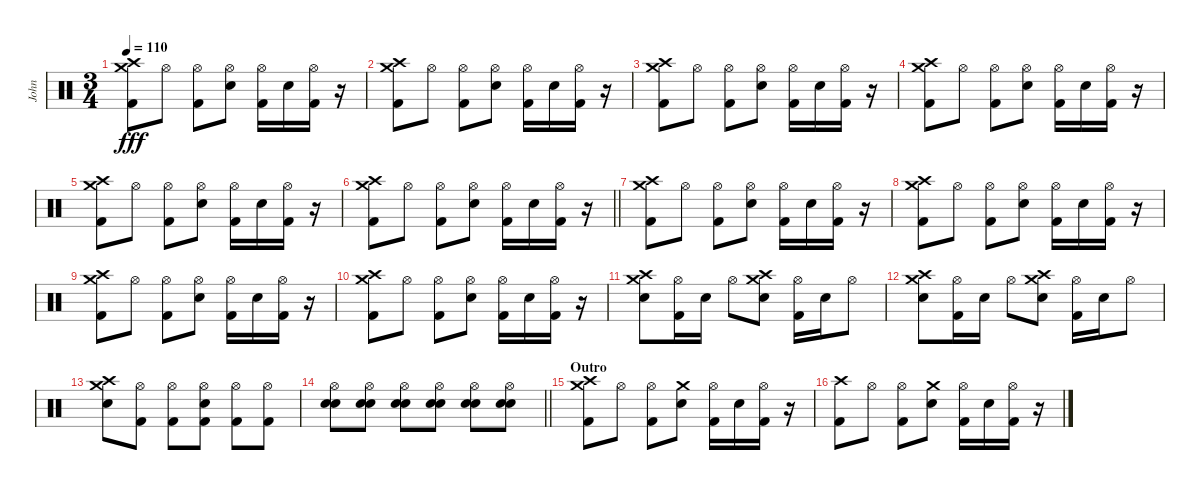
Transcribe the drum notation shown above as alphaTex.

\track ("John" "John") {instrument percussion}
\staff {score}
\articulation defaults
\ts (3 4)
\tempo 110
\clef neutral
\ks c
("Crash medium (hit)" "Crash high (hit)" "Kick (hit) 2").8{dy fff} "Hi-Hat (open)".8 ("Hi-Hat (open)" "Kick (hit) 2").8 ("Hi-Hat (open)" "Electric Snare (hit)").8 ("Hi-Hat (open)" "Kick (hit) 2").16 "Electric Snare (hit)".16 ("Hi-Hat (open)" "Kick (hit) 2").16 r.16 |
("Crash medium (hit)" "Crash high (hit)" "Kick (hit) 2").8 "Hi-Hat (open)".8 ("Hi-Hat (open)" "Kick (hit) 2").8 ("Hi-Hat (open)" "Electric Snare (hit)").8 ("Hi-Hat (open)" "Kick (hit) 2").16 "Electric Snare (hit)".16 ("Hi-Hat (open)" "Kick (hit) 2").16 r.16 |
("Crash medium (hit)" "Crash high (hit)" "Kick (hit) 2").8 "Hi-Hat (open)".8 ("Hi-Hat (open)" "Kick (hit) 2").8 ("Hi-Hat (open)" "Electric Snare (hit)").8 ("Hi-Hat (open)" "Kick (hit) 2").16 "Electric Snare (hit)".16 ("Hi-Hat (open)" "Kick (hit) 2").16 r.16 |
("Crash medium (hit)" "Crash high (hit)" "Kick (hit) 2").8 "Hi-Hat (open)".8 ("Hi-Hat (open)" "Kick (hit) 2").8 ("Hi-Hat (open)" "Electric Snare (hit)").8 ("Hi-Hat (open)" "Kick (hit) 2").16 "Electric Snare (hit)".16 ("Hi-Hat (open)" "Kick (hit) 2").16 r.16 |
("Crash medium (hit)" "Crash high (hit)" "Kick (hit) 2").8 "Hi-Hat (open)".8 ("Hi-Hat (open)" "Kick (hit) 2").8 ("Hi-Hat (open)" "Electric Snare (hit)").8 ("Hi-Hat (open)" "Kick (hit) 2").16 "Electric Snare (hit)".16 ("Hi-Hat (open)" "Kick (hit) 2").16 r.16 |
\barLineRight lightlight
("Crash medium (hit)" "Crash high (hit)" "Kick (hit) 2").8 "Hi-Hat (open)".8 ("Hi-Hat (open)" "Kick (hit) 2").8 ("Hi-Hat (open)" "Electric Snare (hit)").8 ("Hi-Hat (open)" "Kick (hit) 2").16 "Electric Snare (hit)".16 ("Hi-Hat (open)" "Kick (hit) 2").16 r.16 |
("Crash medium (hit)" "Crash high (hit)" "Kick (hit) 2").8 "Hi-Hat (open)".8 ("Hi-Hat (open)" "Kick (hit) 2").8 ("Hi-Hat (open)" "Electric Snare (hit)").8 ("Hi-Hat (open)" "Kick (hit) 2").16 "Electric Snare (hit)".16 ("Hi-Hat (open)" "Kick (hit) 2").16 r.16 |
("Crash medium (hit)" "Crash high (hit)" "Kick (hit) 2").8 "Hi-Hat (open)".8 ("Hi-Hat (open)" "Kick (hit) 2").8 ("Hi-Hat (open)" "Electric Snare (hit)").8 ("Hi-Hat (open)" "Kick (hit) 2").16 "Electric Snare (hit)".16 ("Hi-Hat (open)" "Kick (hit) 2").16 r.16 |
("Crash medium (hit)" "Crash high (hit)" "Kick (hit) 2").8 "Hi-Hat (open)".8 ("Hi-Hat (open)" "Kick (hit) 2").8 ("Hi-Hat (open)" "Electric Snare (hit)").8 ("Hi-Hat (open)" "Kick (hit) 2").16 "Electric Snare (hit)".16 ("Hi-Hat (open)" "Kick (hit) 2").16 r.16 |
("Crash medium (hit)" "Crash high (hit)" "Kick (hit) 2").8 "Hi-Hat (open)".8 ("Hi-Hat (open)" "Kick (hit) 2").8 ("Hi-Hat (open)" "Electric Snare (hit)").8 ("Hi-Hat (open)" "Kick (hit) 2").16 "Electric Snare (hit)".16 ("Hi-Hat (open)" "Kick (hit) 2").16 r.16 |
("Crash medium (hit)" "Crash high (hit)" "Electric Snare (hit)").8 ("Hi-Hat (open)" "Kick (hit) 2").16 "Electric Snare (hit)".16 "Hi-Hat (open)".8 ("Crash medium (hit)" "Crash high (hit)" "Electric Snare (hit)").8 ("Hi-Hat (open)" "Kick (hit) 2").16 "Electric Snare (hit)".16 "Hi-Hat (open)".8 |
("Crash medium (hit)" "Crash high (hit)" "Electric Snare (hit)").8 ("Hi-Hat (open)" "Kick (hit) 2").16 "Electric Snare (hit)".16 "Hi-Hat (open)".8 ("Crash medium (hit)" "Crash high (hit)" "Electric Snare (hit)").8 ("Hi-Hat (open)" "Kick (hit) 2").16 "Electric Snare (hit)".16 "Hi-Hat (open)".8 |
("Crash medium (hit)" "Crash high (hit)" "Electric Snare (hit)").8 ("Hi-Hat (open)" "Kick (hit) 2").8 ("Hi-Hat (open)" "Kick (hit) 2").8 ("Hi-Hat (open)" "Electric Snare (hit)" "Kick (hit) 2").8 ("Hi-Hat (open)" "Kick (hit) 2").8 ("Hi-Hat (open)" "Kick (hit) 2").8 |
\barLineRight lightlight
("Hi-Hat (open)" "Electric Snare (hit)" "Electric Snare (hit)").8 ("Hi-Hat (open)" "Electric Snare (hit)" "Electric Snare (hit)").8 ("Hi-Hat (open)" "Electric Snare (hit)" "Electric Snare (hit)").8 ("Hi-Hat (open)" "Electric Snare (hit)" "Electric Snare (hit)").8 ("Hi-Hat (open)" "Electric Snare (hit)" "Electric Snare (hit)").8 ("Hi-Hat (open)" "Electric Snare (hit)" "Electric Snare (hit)").8 |
\section ("" "Outro")
("Crash medium (hit)" "Crash high (hit)" "Kick (hit) 2").8 "Hi-Hat (open)".8 ("Hi-Hat (open)" "Kick (hit) 2").8 ("Crash medium (hit)" "Electric Snare (hit)").8 ("Hi-Hat (open)" "Kick (hit) 2").16 "Electric Snare (hit)".16 ("Hi-Hat (open)" "Kick (hit) 2").16 r.16 |
("Crash high (hit)" "Kick (hit) 2").8 "Hi-Hat (open)".8 ("Hi-Hat (open)" "Kick (hit) 2").8 ("Crash medium (hit)" "Electric Snare (hit)").8 ("Hi-Hat (open)" "Kick (hit) 2").16 "Electric Snare (hit)".16 ("Hi-Hat (open)" "Kick (hit) 2").16 r.16
